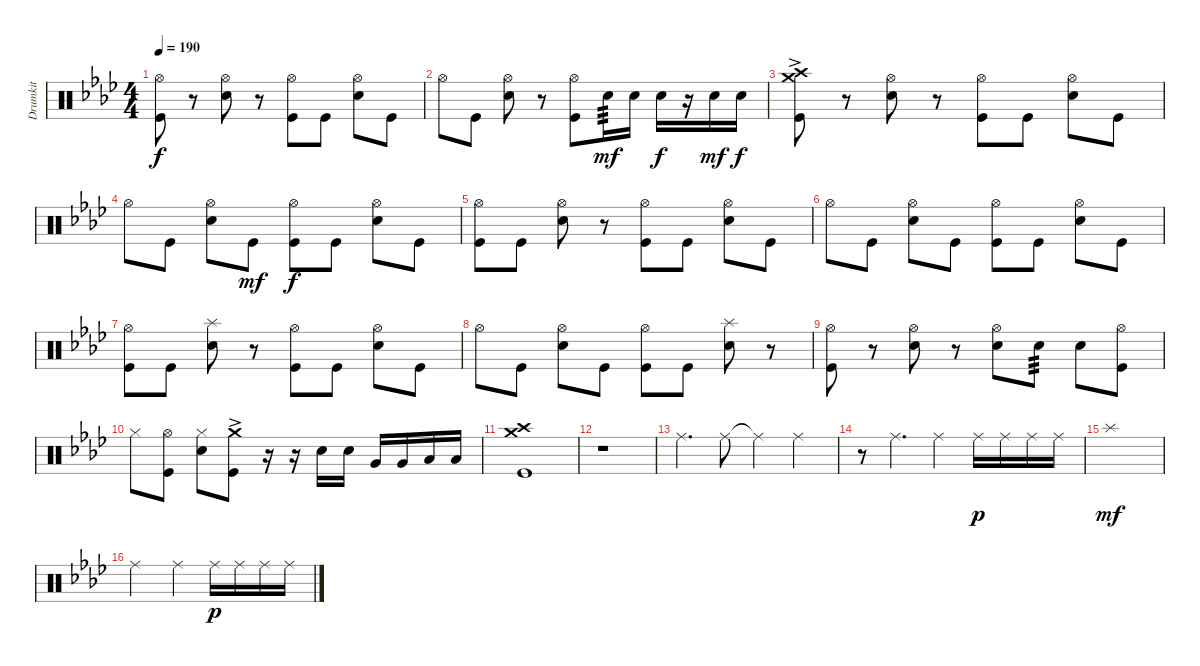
\track ("Drumkit" "Drumkit") {instrument percussion}
\staff {score}
\articulation defaults
\ts (4 4)
\tempo 190
\clef neutral
\ks ab
("Kick (hit)" "Hi-Hat (open)").8{dy f} r.8 ("Hi-Hat (open)" "Snare (hit) 2").8 r.8 ("Hi-Hat (open)" "Kick (hit)").8 "Kick (hit)".8 ("Hi-Hat (open)" "Snare (hit) 2").8 "Kick (hit)".8 |
"Hi-Hat (open)".8 "Kick (hit)".8 ("Hi-Hat (open)" "Snare (hit) 2").8 r.8 ("Hi-Hat (open)" "Kick (hit)").8 "Snare (hit) 2".16{tp 3 dy mf} "Snare (hit) 2".16 "Snare (hit) 2".16{dy f} r.16 "Snare (hit) 2".16{dy mf} "Snare (hit) 2".16{dy f} |
("Crash medium (hit)"{ac} "Crash high (hit)" "Kick (hit)").8 r.8 ("Hi-Hat (open)" "Snare (hit) 2").8 r.8 ("Hi-Hat (open)" "Kick (hit)").8 "Kick (hit)".8 ("Hi-Hat (open)" "Snare (hit) 2").8 "Kick (hit)".8 |
"Hi-Hat (open)".8 "Kick (hit)".8 ("Hi-Hat (open)" "Snare (hit) 2").8 "Kick (hit)".8{dy mf} ("Hi-Hat (open)" "Kick (hit)").8{dy f} "Kick (hit)".8 ("Hi-Hat (open)" "Snare (hit) 2").8 "Kick (hit)".8 |
("Kick (hit)" "Hi-Hat (open)").8 "Kick (hit)".8 ("Hi-Hat (open)" "Snare (hit) 2").8 r.8 ("Hi-Hat (open)" "Kick (hit)").8 "Kick (hit)".8 ("Hi-Hat (open)" "Snare (hit) 2").8 "Kick (hit)".8 |
"Hi-Hat (open)".8 "Kick (hit)".8 ("Hi-Hat (open)" "Snare (hit) 2").8 "Kick (hit)".8 ("Hi-Hat (open)" "Kick (hit)").8 "Kick (hit)".8 ("Hi-Hat (open)" "Snare (hit) 2").8 "Kick (hit)".8 |
("Kick (hit)" "Hi-Hat (open)").8 "Kick (hit)".8 ("Snare (hit) 2" "Splash (hit)").8 r.8 ("Hi-Hat (open)" "Kick (hit)").8 "Kick (hit)".8 ("Hi-Hat (open)" "Snare (hit) 2").8 "Kick (hit)".8 |
"Hi-Hat (open)".8 "Kick (hit)".8 ("Hi-Hat (open)" "Snare (hit) 2").8 "Kick (hit)".8 ("Hi-Hat (open)" "Kick (hit)").8 "Kick (hit)".8 ("Snare (hit) 2" "Splash (hit)").8 r.8 |
("Kick (hit)" "Hi-Hat (open)").8 r.8 ("Hi-Hat (open)" "Snare (hit) 2").8 r.8 ("Hi-Hat (open)" "Snare (hit) 2").8 "Snare (hit) 2".8{tp 3} "Snare (hit) 2".8 ("Kick (hit)" "Hi-Hat (open)").8 |
"Hi-Hat (closed)".8 ("Hi-Hat (open)" "Kick (hit)").8 ("Hi-Hat (closed)" "Snare (hit) 2").8 ("Kick (hit)" "Crash medium (hit)"{ac}).8 r.16 r.16 "Snare (hit) 2".16 "Snare (hit) 2".16 "Very Low Tom (hit)".16 "Very Low Tom (hit)".16 "Low Floor Tom (hit)".16 "Low Floor Tom (hit)".16 |
("Kick (hit)" "Crash medium (hit)" "Crash high (hit)").1 |
r.1 |
"Ride (middle)".4{d} "Ride (middle)".8 "Ride (middle)"{t}.4 "Ride (middle)".4 |
r.8 "Ride (middle)".4{d} "Ride (middle)".4 "Ride (middle)".16{dy p} "Ride (middle)".16 "Ride (middle)".16 "Ride (middle)".16 |
"Splash (hit)".1{dy mf} |
"Ride (middle)".2 "Ride (middle)".4 "Ride (middle)".16{dy p} "Ride (middle)".16 "Ride (middle)".16 "Ride (middle)".16
